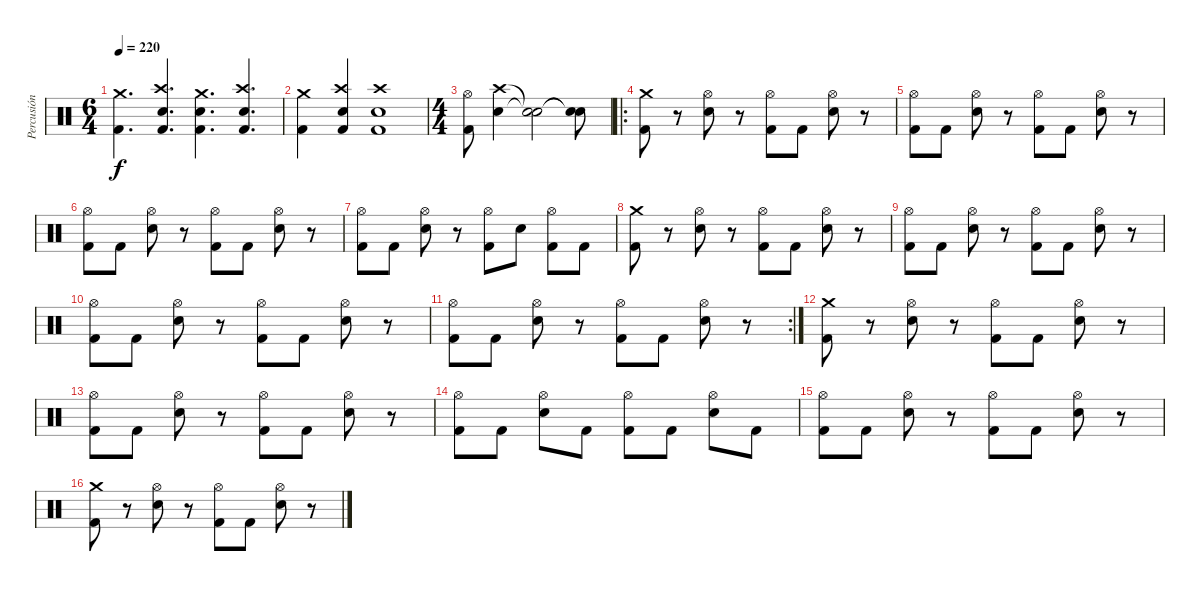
\track ("Percusión" "Percusión") {instrument percussion}
\staff {score}
\articulation defaults
\ts (6 4)
\tempo 220
\clef neutral
\ks c
("Crash medium (hit)" "Kick (hit) 2").4{d dy f} ("Crash high (hit)" "Electric Snare (hit)" "Kick (hit) 2").4{d} ("Crash medium (hit)" "Electric Snare (hit)" "Kick (hit) 2").4{d} ("Crash high (hit)" "Electric Snare (hit)" "Kick (hit) 2").4{d} |
("Crash medium (hit)" "Kick (hit) 2").4 ("Crash high (hit)" "Electric Snare (hit)" "Kick (hit) 2").4 ("Crash high (hit)" "Electric Snare (hit)" "Kick (hit) 2").1 |
\ts (4 4)
("Hi-Hat (open)" "Kick (hit) 2").8 ("Crash high (hit)" "Electric Snare (hit)").4 ("Snare (hit)"{t} "Snare (hit)"{t}).2 ("Snare (hit)"{t} "Snare (hit)"{t}).8 |
\ro
("Crash medium (hit)" "Kick (hit) 2").8 r.8 ("Hi-Hat (open)" "Electric Snare (hit)").8 r.8 ("Hi-Hat (open)" "Kick (hit) 2").8 "Kick (hit) 2".8 ("Hi-Hat (open)" "Electric Snare (hit)").8 r.8 |
("Hi-Hat (open)" "Kick (hit) 2").8 "Kick (hit) 2".8 ("Hi-Hat (open)" "Electric Snare (hit)").8 r.8 ("Hi-Hat (open)" "Kick (hit) 2").8 "Kick (hit) 2".8 ("Hi-Hat (open)" "Electric Snare (hit)").8 r.8 |
("Hi-Hat (open)" "Kick (hit) 2").8 "Kick (hit) 2".8 ("Hi-Hat (open)" "Electric Snare (hit)").8 r.8 ("Hi-Hat (open)" "Kick (hit) 2").8 "Kick (hit) 2".8 ("Hi-Hat (open)" "Electric Snare (hit)").8 r.8 |
("Hi-Hat (open)" "Kick (hit) 2").8 "Kick (hit) 2".8 ("Hi-Hat (open)" "Electric Snare (hit)").8 r.8 ("Hi-Hat (open)" "Kick (hit) 2").8 "Electric Snare (hit)".8 ("Hi-Hat (open)" "Kick (hit) 2").8 "Kick (hit) 2".8 |
("Crash medium (hit)" "Kick (hit) 2").8 r.8 ("Hi-Hat (open)" "Electric Snare (hit)").8 r.8 ("Hi-Hat (open)" "Kick (hit) 2").8 "Kick (hit) 2".8 ("Hi-Hat (open)" "Electric Snare (hit)").8 r.8 |
("Hi-Hat (open)" "Kick (hit) 2").8 "Kick (hit) 2".8 ("Hi-Hat (open)" "Electric Snare (hit)").8 r.8 ("Hi-Hat (open)" "Kick (hit) 2").8 "Kick (hit) 2".8 ("Hi-Hat (open)" "Electric Snare (hit)").8 r.8 |
("Hi-Hat (open)" "Kick (hit) 2").8 "Kick (hit) 2".8 ("Hi-Hat (open)" "Electric Snare (hit)").8 r.8 ("Hi-Hat (open)" "Kick (hit) 2").8 "Kick (hit) 2".8 ("Hi-Hat (open)" "Electric Snare (hit)").8 r.8 |
\rc 2
("Hi-Hat (open)" "Kick (hit) 2").8 "Kick (hit) 2".8 ("Hi-Hat (open)" "Electric Snare (hit)").8 r.8 ("Hi-Hat (open)" "Kick (hit) 2").8 "Kick (hit) 2".8 ("Hi-Hat (open)" "Electric Snare (hit)").8 r.8 |
("Crash medium (hit)" "Kick (hit) 2").8 r.8 ("Hi-Hat (open)" "Electric Snare (hit)").8 r.8 ("Hi-Hat (open)" "Kick (hit) 2").8 "Kick (hit) 2".8 ("Hi-Hat (open)" "Electric Snare (hit)").8 r.8 |
("Hi-Hat (open)" "Kick (hit) 2").8 "Kick (hit) 2".8 ("Hi-Hat (open)" "Electric Snare (hit)").8 r.8 ("Hi-Hat (open)" "Kick (hit) 2").8 "Kick (hit) 2".8 ("Hi-Hat (open)" "Electric Snare (hit)").8 r.8 |
("Hi-Hat (open)" "Kick (hit) 2").8 "Kick (hit) 2".8 ("Hi-Hat (open)" "Electric Snare (hit)").8 "Kick (hit) 2".8 ("Hi-Hat (open)" "Kick (hit) 2").8 "Kick (hit) 2".8 ("Hi-Hat (open)" "Electric Snare (hit)").8 "Kick (hit) 2".8 |
("Hi-Hat (open)" "Kick (hit) 2").8 "Kick (hit) 2".8 ("Hi-Hat (open)" "Electric Snare (hit)").8 r.8 ("Hi-Hat (open)" "Kick (hit) 2").8 "Kick (hit) 2".8 ("Hi-Hat (open)" "Electric Snare (hit)").8 r.8 |
("Crash medium (hit)" "Kick (hit) 2").8 r.8 ("Hi-Hat (open)" "Electric Snare (hit)").8 r.8 ("Hi-Hat (open)" "Kick (hit) 2").8 "Kick (hit) 2".8 ("Hi-Hat (open)" "Electric Snare (hit)").8 r.8
